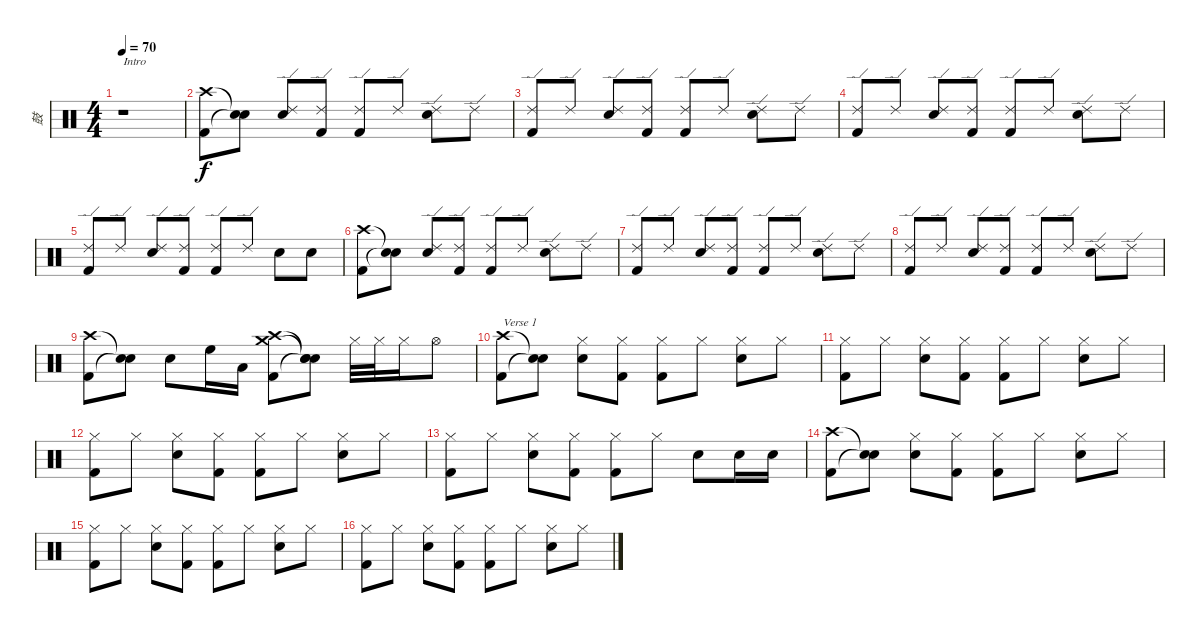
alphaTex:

\track ("鼓" "鼓") {instrument percussion}
\staff {score}
\articulation defaults
\ts (4 4)
\tempo 70
\clef neutral
\ks c
r.1{txt "Intro" dy f} |
("Crash high (hit)" "Kick (hit) 2").8 ("Snare (hit)"{t} "Snare (hit)"{t}).8 ("Ride (edge) 2" "Electric Snare (hit)").8 ("Ride (edge) 2" "Kick (hit) 2").8 ("Ride (edge) 2" "Kick (hit) 2").8 "Ride (edge) 2".8 ("Ride (edge) 2" "Electric Snare (hit)").8 "Ride (edge) 2".8 |
("Ride (edge) 2" "Kick (hit) 2").8 "Ride (edge) 2".8 ("Ride (edge) 2" "Electric Snare (hit)").8 ("Ride (edge) 2" "Kick (hit) 2").8 ("Ride (edge) 2" "Kick (hit) 2").8 "Ride (edge) 2".8 ("Ride (edge) 2" "Electric Snare (hit)").8 "Ride (edge) 2".8 |
("Ride (edge) 2" "Kick (hit) 2").8 "Ride (edge) 2".8 ("Ride (edge) 2" "Electric Snare (hit)").8 ("Ride (edge) 2" "Kick (hit) 2").8 ("Ride (edge) 2" "Kick (hit) 2").8 "Ride (edge) 2".8 ("Ride (edge) 2" "Electric Snare (hit)").8 "Ride (edge) 2".8 |
("Ride (edge) 2" "Kick (hit) 2").8 "Ride (edge) 2".8 ("Ride (edge) 2" "Electric Snare (hit)").8 ("Ride (edge) 2" "Kick (hit) 2").8 ("Ride (edge) 2" "Kick (hit) 2").8 "Ride (edge) 2".8 "Electric Snare (hit)".8 "Electric Snare (hit)".8 |
("Crash high (hit)" "Kick (hit) 2").8 ("Snare (hit)"{t} "Snare (hit)"{t}).8 ("Ride (edge) 2" "Electric Snare (hit)").8 ("Ride (edge) 2" "Kick (hit) 2").8 ("Ride (edge) 2" "Kick (hit) 2").8 "Ride (edge) 2".8 ("Ride (edge) 2" "Electric Snare (hit)").8 "Ride (edge) 2".8 |
("Ride (edge) 2" "Kick (hit) 2").8 "Ride (edge) 2".8 ("Ride (edge) 2" "Electric Snare (hit)").8 ("Ride (edge) 2" "Kick (hit) 2").8 ("Ride (edge) 2" "Kick (hit) 2").8 "Ride (edge) 2".8 ("Ride (edge) 2" "Electric Snare (hit)").8 "Ride (edge) 2".8 |
("Ride (edge) 2" "Kick (hit) 2").8 "Ride (edge) 2".8 ("Ride (edge) 2" "Electric Snare (hit)").8 ("Ride (edge) 2" "Kick (hit) 2").8 ("Ride (edge) 2" "Kick (hit) 2").8 "Ride (edge) 2".8 ("Ride (edge) 2" "Electric Snare (hit)").8 "Ride (edge) 2".8 |
("Crash high (hit)" "Kick (hit) 2").8 ("Snare (hit)"{t} "Snare (hit)"{t}).8 "Electric Snare (hit)".8 "High Floor Tom (hit)".16 "Low Tom (hit)".16 ("Crash high (hit)" "Crash medium (hit)" "Kick (hit) 2").8 ("Snare (hit)"{t} "Snare (hit)"{t} "Snare (hit)"{t}).8 "Hi-Hat (closed)".32 "Hi-Hat (closed)".32 "Hi-Hat (closed)".16 "Hi-Hat (open)".8 |
("Crash high (hit)" "Kick (hit) 2").8{txt "Verse 1"} ("Snare (hit)"{t} "Snare (hit)"{t}).8 ("Hi-Hat (closed)" "Electric Snare (hit)").8 ("Hi-Hat (closed)" "Kick (hit) 2").8 ("Hi-Hat (closed)" "Kick (hit) 2").8 "Hi-Hat (closed)".8 ("Hi-Hat (closed)" "Electric Snare (hit)").8 "Hi-Hat (closed)".8 |
("Hi-Hat (closed)" "Kick (hit) 2").8 "Hi-Hat (closed)".8 ("Hi-Hat (closed)" "Electric Snare (hit)").8 ("Hi-Hat (closed)" "Kick (hit) 2").8 ("Hi-Hat (closed)" "Kick (hit) 2").8 "Hi-Hat (closed)".8 ("Hi-Hat (closed)" "Electric Snare (hit)").8 "Hi-Hat (closed)".8 |
("Hi-Hat (closed)" "Kick (hit) 2").8 "Hi-Hat (closed)".8 ("Hi-Hat (closed)" "Electric Snare (hit)").8 ("Hi-Hat (closed)" "Kick (hit) 2").8 ("Hi-Hat (closed)" "Kick (hit) 2").8 "Hi-Hat (closed)".8 ("Hi-Hat (closed)" "Electric Snare (hit)").8 "Hi-Hat (closed)".8 |
("Hi-Hat (closed)" "Kick (hit) 2").8 "Hi-Hat (closed)".8 ("Hi-Hat (closed)" "Electric Snare (hit)").8 ("Hi-Hat (closed)" "Kick (hit) 2").8 ("Hi-Hat (closed)" "Kick (hit) 2").8 "Hi-Hat (closed)".8 "Electric Snare (hit)".8 "Electric Snare (hit)".16 "Electric Snare (hit)".16 |
("Crash high (hit)" "Kick (hit) 2").8 ("Snare (hit)"{t} "Snare (hit)"{t}).8 ("Hi-Hat (closed)" "Electric Snare (hit)").8 ("Hi-Hat (closed)" "Kick (hit) 2").8 ("Hi-Hat (closed)" "Kick (hit) 2").8 "Hi-Hat (closed)".8 ("Hi-Hat (closed)" "Electric Snare (hit)").8 "Hi-Hat (closed)".8 |
("Hi-Hat (closed)" "Kick (hit) 2").8 "Hi-Hat (closed)".8 ("Hi-Hat (closed)" "Electric Snare (hit)").8 ("Hi-Hat (closed)" "Kick (hit) 2").8 ("Hi-Hat (closed)" "Kick (hit) 2").8 "Hi-Hat (closed)".8 ("Hi-Hat (closed)" "Electric Snare (hit)").8 "Hi-Hat (closed)".8 |
("Hi-Hat (closed)" "Kick (hit) 2").8 "Hi-Hat (closed)".8 ("Hi-Hat (closed)" "Electric Snare (hit)").8 ("Hi-Hat (closed)" "Kick (hit) 2").8 ("Hi-Hat (closed)" "Kick (hit) 2").8 "Hi-Hat (closed)".8 ("Hi-Hat (closed)" "Electric Snare (hit)").8 "Hi-Hat (closed)".8
